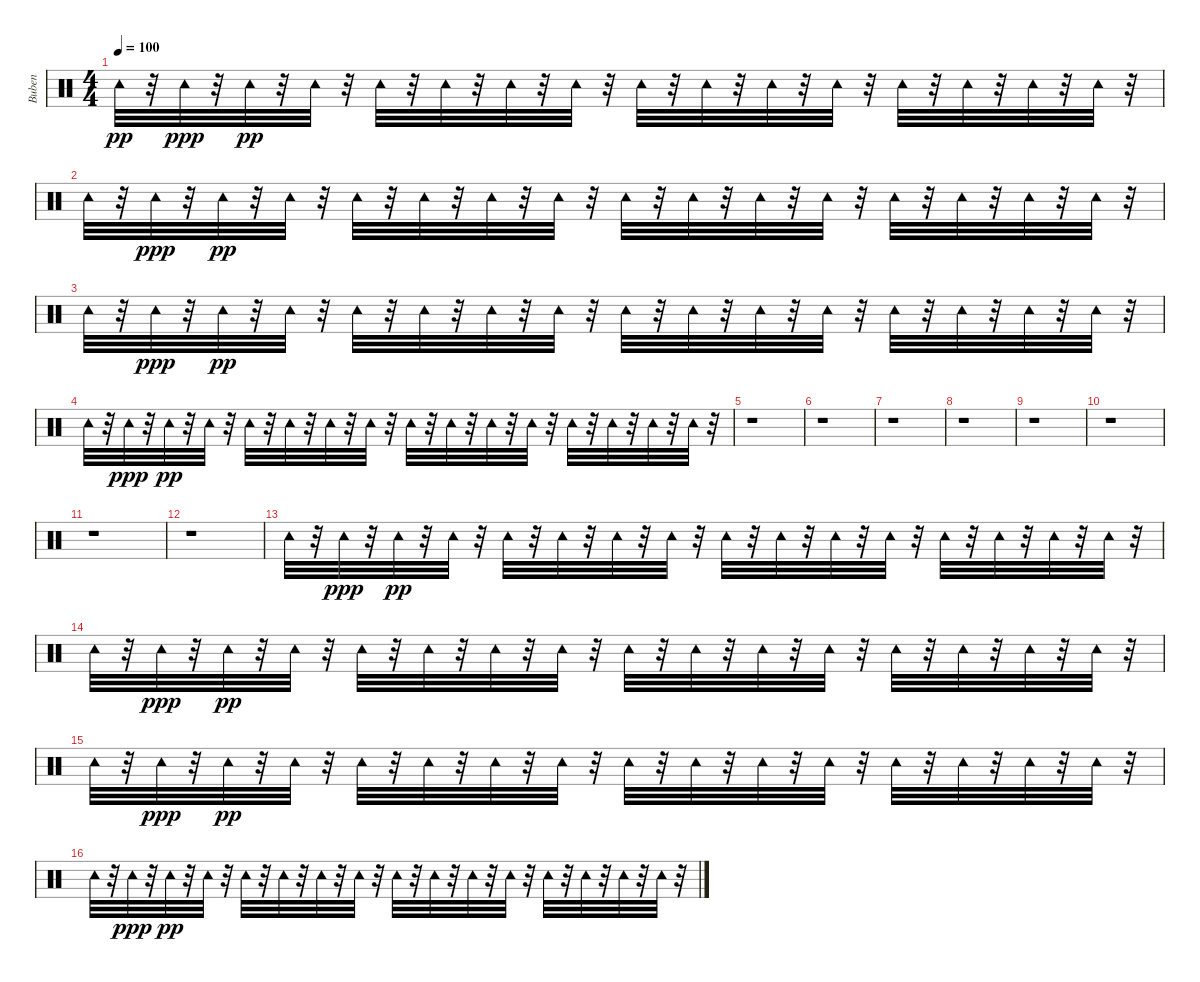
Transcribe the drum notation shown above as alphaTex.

\track ("Buben" "Buben") {instrument percussion}
\staff {score}
\articulation defaults
\ts (4 4)
\tempo 100
\clef neutral
\ks c "Tambourine (hit)".32{dy pp}
r.32 "Tambourine (hit)".32{dy ppp} r.32 "Tambourine (hit)".32{dy pp} r.32 "Tambourine (hit)".32 r.32 "Tambourine (hit)".32 r.32 "Tambourine (hit)".32 r.32 "Tambourine (hit)".32 r.32 "Tambourine (hit)".32 r.32 "Tambourine (hit)".32 r.32 "Tambourine (hit)".32 r.32 "Tambourine (hit)".32 r.32 "Tambourine (hit)".32 r.32 "Tambourine (hit)".32 r.32 "Tambourine (hit)".32 r.32 "Tambourine (hit)".32 r.32 "Tambourine (hit)".32 r.32 |
"Tambourine (hit)".32 r.32 "Tambourine (hit)".32{dy ppp} r.32 "Tambourine (hit)".32{dy pp} r.32 "Tambourine (hit)".32 r.32 "Tambourine (hit)".32 r.32 "Tambourine (hit)".32 r.32 "Tambourine (hit)".32 r.32 "Tambourine (hit)".32 r.32 "Tambourine (hit)".32 r.32 "Tambourine (hit)".32 r.32 "Tambourine (hit)".32 r.32 "Tambourine (hit)".32 r.32 "Tambourine (hit)".32 r.32 "Tambourine (hit)".32 r.32 "Tambourine (hit)".32 r.32 "Tambourine (hit)".32 r.32 |
"Tambourine (hit)".32 r.32 "Tambourine (hit)".32{dy ppp} r.32 "Tambourine (hit)".32{dy pp} r.32 "Tambourine (hit)".32 r.32 "Tambourine (hit)".32 r.32 "Tambourine (hit)".32 r.32 "Tambourine (hit)".32 r.32 "Tambourine (hit)".32 r.32 "Tambourine (hit)".32 r.32 "Tambourine (hit)".32 r.32 "Tambourine (hit)".32 r.32 "Tambourine (hit)".32 r.32 "Tambourine (hit)".32 r.32 "Tambourine (hit)".32 r.32 "Tambourine (hit)".32 r.32 "Tambourine (hit)".32 r.32 |
"Tambourine (hit)".32 r.32 "Tambourine (hit)".32{dy ppp} r.32 "Tambourine (hit)".32{dy pp} r.32 "Tambourine (hit)".32 r.32 "Tambourine (hit)".32 r.32 "Tambourine (hit)".32 r.32 "Tambourine (hit)".32 r.32 "Tambourine (hit)".32 r.32 "Tambourine (hit)".32 r.32 "Tambourine (hit)".32 r.32 "Tambourine (hit)".32 r.32 "Tambourine (hit)".32 r.32 "Tambourine (hit)".32 r.32 "Tambourine (hit)".32 r.32 "Tambourine (hit)".32 r.32 "Tambourine (hit)".32 r.32 |
r.1 |
r.1 |
r.1 |
r.1 |
r.1 |
r.1 |
r.1 |
r.1 |
"Tambourine (hit)".32 r.32 "Tambourine (hit)".32{dy ppp} r.32 "Tambourine (hit)".32{dy pp} r.32 "Tambourine (hit)".32 r.32 "Tambourine (hit)".32 r.32 "Tambourine (hit)".32 r.32 "Tambourine (hit)".32 r.32 "Tambourine (hit)".32 r.32 "Tambourine (hit)".32 r.32 "Tambourine (hit)".32 r.32 "Tambourine (hit)".32 r.32 "Tambourine (hit)".32 r.32 "Tambourine (hit)".32 r.32 "Tambourine (hit)".32 r.32 "Tambourine (hit)".32 r.32 "Tambourine (hit)".32 r.32 |
"Tambourine (hit)".32 r.32 "Tambourine (hit)".32{dy ppp} r.32 "Tambourine (hit)".32{dy pp} r.32 "Tambourine (hit)".32 r.32 "Tambourine (hit)".32 r.32 "Tambourine (hit)".32 r.32 "Tambourine (hit)".32 r.32 "Tambourine (hit)".32 r.32 "Tambourine (hit)".32 r.32 "Tambourine (hit)".32 r.32 "Tambourine (hit)".32 r.32 "Tambourine (hit)".32 r.32 "Tambourine (hit)".32 r.32 "Tambourine (hit)".32 r.32 "Tambourine (hit)".32 r.32 "Tambourine (hit)".32 r.32 |
"Tambourine (hit)".32 r.32 "Tambourine (hit)".32{dy ppp} r.32 "Tambourine (hit)".32{dy pp} r.32 "Tambourine (hit)".32 r.32 "Tambourine (hit)".32 r.32 "Tambourine (hit)".32 r.32 "Tambourine (hit)".32 r.32 "Tambourine (hit)".32 r.32 "Tambourine (hit)".32 r.32 "Tambourine (hit)".32 r.32 "Tambourine (hit)".32 r.32 "Tambourine (hit)".32 r.32 "Tambourine (hit)".32 r.32 "Tambourine (hit)".32 r.32 "Tambourine (hit)".32 r.32 "Tambourine (hit)".32 r.32 |
"Tambourine (hit)".32 r.32 "Tambourine (hit)".32{dy ppp} r.32 "Tambourine (hit)".32{dy pp} r.32 "Tambourine (hit)".32 r.32 "Tambourine (hit)".32 r.32 "Tambourine (hit)".32 r.32 "Tambourine (hit)".32 r.32 "Tambourine (hit)".32 r.32 "Tambourine (hit)".32 r.32 "Tambourine (hit)".32 r.32 "Tambourine (hit)".32 r.32 "Tambourine (hit)".32 r.32 "Tambourine (hit)".32 r.32 "Tambourine (hit)".32 r.32 "Tambourine (hit)".32 r.32 "Tambourine (hit)".32 r.32
